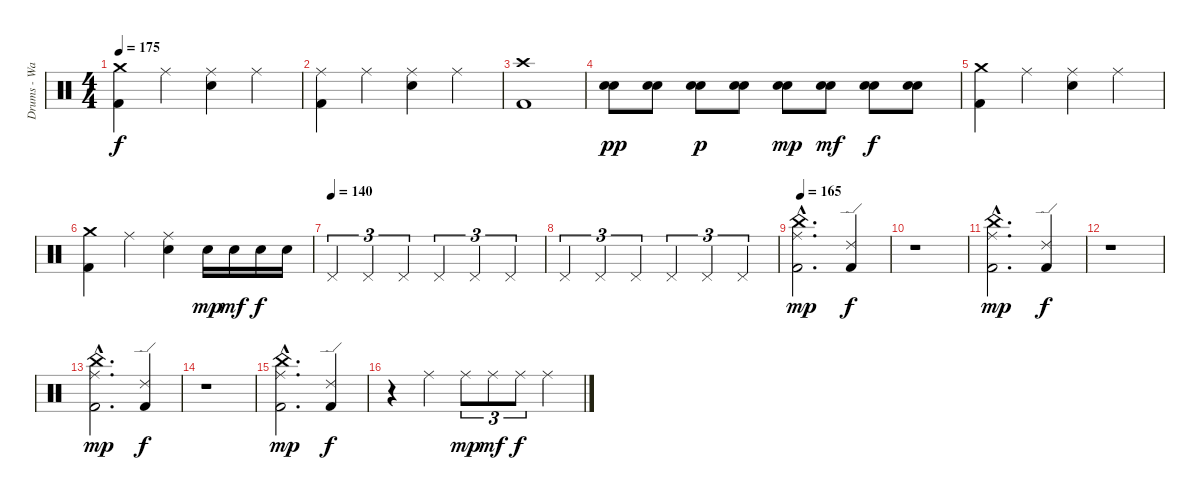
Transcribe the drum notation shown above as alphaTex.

\track ("Drums - Ward" "Drums - Wa") {instrument percussion}
\staff {score}
\articulation defaults
\ts (4 4)
\tempo 175
\clef neutral
\ks c
("Crash medium (hit)" "Kick (hit) 2").4{dy f} "Ride (middle)".4 ("Ride (middle)" "Electric Snare (hit)").4 "Ride (middle)".4 |
("Ride (middle)" "Kick (hit) 2").4 "Ride (middle)".4 ("Ride (middle)" "Electric Snare (hit)").4 "Ride (middle)".4 |
("Crash high (hit)" "Kick (hit) 2").1 |
("Electric Snare (hit)" "Electric Snare (hit)").8{dy pp} ("Electric Snare (hit)" "Electric Snare (hit)").8 ("Electric Snare (hit)" "Electric Snare (hit)").8{dy p} ("Electric Snare (hit)" "Electric Snare (hit)").8 ("Electric Snare (hit)" "Electric Snare (hit)").8{dy mp} ("Electric Snare (hit)" "Electric Snare (hit)").8{dy mf} ("Electric Snare (hit)" "Electric Snare (hit)").8{dy f} ("Electric Snare (hit)" "Electric Snare (hit)").8 |
("Crash medium (hit)" "Kick (hit) 2").4 "Ride (middle)".4 ("Ride (middle)" "Electric Snare (hit)").4 "Ride (middle)".4 |
("Crash medium (hit)" "Kick (hit) 2").4 "Ride (middle)".4 ("Ride (middle)" "Electric Snare (hit)").4 "Electric Snare (hit)".16{dy mp} "Electric Snare (hit)".16{dy mf} "Electric Snare (hit)".16{dy f} "Electric Snare (hit)".16 |
\tempo (140)
"Pedal Hi-Hat (hit)".4{tu (3 2)} "Pedal Hi-Hat (hit)".4{tu (3 2)} "Pedal Hi-Hat (hit)".4{tu (3 2)} "Pedal Hi-Hat (hit)".4{tu (3 2)} "Pedal Hi-Hat (hit)".4{tu (3 2)} "Pedal Hi-Hat (hit)".4{tu (3 2)} |
"Pedal Hi-Hat (hit)".4{tu (3 2)} "Pedal Hi-Hat (hit)".4{tu (3 2)} "Pedal Hi-Hat (hit)".4{tu (3 2)} "Pedal Hi-Hat (hit)".4{tu (3 2)} "Pedal Hi-Hat (hit)".4{tu (3 2)} "Pedal Hi-Hat (hit)".4{tu (3 2)} |
\tempo 165
("China (hit)"{hac} "Ride (middle)"{hac} "Kick (hit) 2"{hac}).2{d dy mp} ("Ride (edge) 2" "Kick (hit) 2").4{dy f} |
r.1 |
("China (hit)"{hac} "Ride (middle)"{hac} "Kick (hit) 2"{hac}).2{d dy mp} ("Ride (edge) 2" "Kick (hit) 2").4{dy f} |
r.1 |
("China (hit)"{hac} "Ride (middle)"{hac} "Kick (hit) 2"{hac}).2{d dy mp} ("Ride (edge) 2" "Kick (hit) 2").4{dy f} |
r.1 |
("China (hit)"{hac} "Ride (middle)"{hac} "Kick (hit) 2"{hac}).2{d dy mp} ("Ride (edge) 2" "Kick (hit) 2").4{dy f} |
r.4 "Ride (middle)".4 "Ride (middle)".8{tu (3 2) dy mp} "Ride (middle)".8{tu (3 2) dy mf} "Ride (middle)".8{tu (3 2) dy f} "Ride (middle)".4
